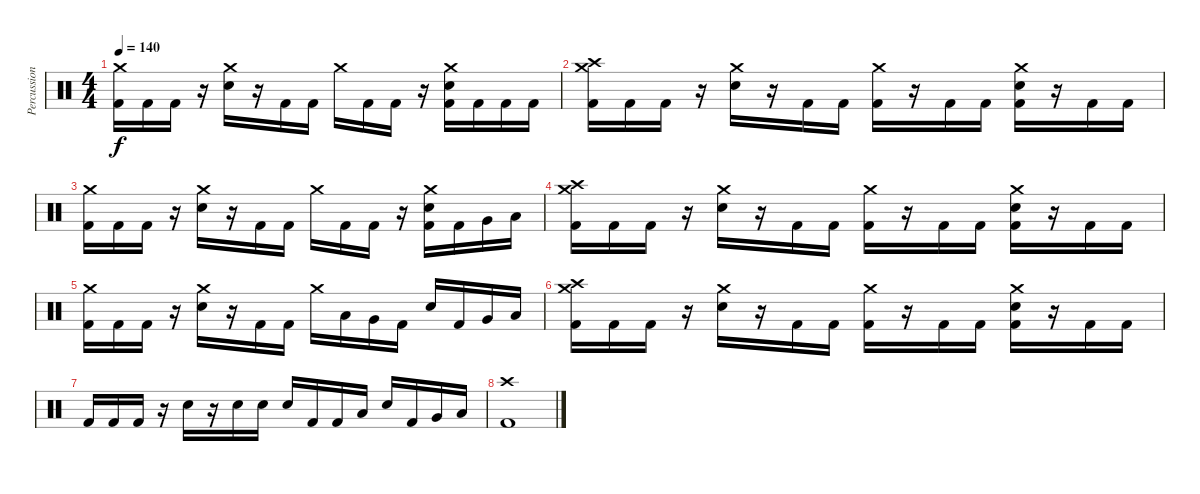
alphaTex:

\track ("Percussion" "Percussion") {instrument percussion}
\staff {score}
\articulation defaults
\ts (4 4)
\tempo 140
\clef neutral
\ks c
("Crash medium (hit)" "Kick (hit) 2").16{dy f} "Kick (hit) 2".16 "Kick (hit) 2".16 r.16 ("Crash medium (hit)" "Electric Snare (hit)").16 r.16 "Kick (hit) 2".16 "Kick (hit) 2".16 "Crash medium (hit)".16 "Kick (hit) 2".16 "Kick (hit) 2".16 r.16 ("Crash medium (hit)" "Electric Snare (hit)" "Kick (hit) 2").16 "Kick (hit) 2".16 "Kick (hit) 2".16 "Kick (hit) 2".16 |
("Crash high (hit)" "Crash medium (hit)" "Kick (hit) 2").16 "Kick (hit) 2".16 "Kick (hit) 2".16 r.16 ("Crash medium (hit)" "Electric Snare (hit)").16 r.16 "Kick (hit) 2".16 "Kick (hit) 2".16 ("Crash medium (hit)" "Kick (hit) 2").16 r.16 "Kick (hit) 2".16 "Kick (hit) 2".16 ("Crash medium (hit)" "Electric Snare (hit)" "Kick (hit) 2").16 r.16 "Kick (hit) 2".16 "Kick (hit) 2".16 |
("Crash medium (hit)" "Kick (hit) 2").16 "Kick (hit) 2".16 "Kick (hit) 2".16 r.16 ("Crash medium (hit)" "Electric Snare (hit)").16 r.16 "Kick (hit) 2".16 "Kick (hit) 2".16 "Crash medium (hit)".16 "Kick (hit) 2".16 "Kick (hit) 2".16 r.16 ("Crash medium (hit)" "Electric Snare (hit)" "Kick (hit) 2").16 "Kick (hit) 2".16 "Very Low Tom (hit)".16 "Low Floor Tom (hit)".16 |
("Crash high (hit)" "Crash medium (hit)" "Kick (hit) 2").16 "Kick (hit) 2".16 "Kick (hit) 2".16 r.16 ("Crash medium (hit)" "Electric Snare (hit)").16 r.16 "Kick (hit) 2".16 "Kick (hit) 2".16 ("Crash medium (hit)" "Kick (hit) 2").16 r.16 "Kick (hit) 2".16 "Kick (hit) 2".16 ("Crash medium (hit)" "Electric Snare (hit)" "Kick (hit) 2").16 r.16 "Kick (hit) 2".16 "Kick (hit) 2".16 |
("Crash medium (hit)" "Kick (hit) 2").16 "Kick (hit) 2".16 "Kick (hit) 2".16 r.16 ("Crash medium (hit)" "Electric Snare (hit)").16 r.16 "Kick (hit) 2".16 "Kick (hit) 2".16 "Crash medium (hit)".16 "Low Tom (hit)".16 "Very Low Tom (hit)".16 "Kick (hit) 2".16 "Electric Snare (hit)".16 "Kick (hit) 2".16 "Very Low Tom (hit)".16 "Low Floor Tom (hit)".16 |
("Crash high (hit)" "Crash medium (hit)" "Kick (hit) 2").16 "Kick (hit) 2".16 "Kick (hit) 2".16 r.16 ("Crash medium (hit)" "Electric Snare (hit)").16 r.16 "Kick (hit) 2".16 "Kick (hit) 2".16 ("Crash medium (hit)" "Kick (hit) 2").16 r.16 "Kick (hit) 2".16 "Kick (hit) 2".16 ("Crash medium (hit)" "Electric Snare (hit)" "Kick (hit) 2").16 r.16 "Kick (hit) 2".16 "Kick (hit) 2".16 |
"Kick (hit) 2".16 "Kick (hit) 2".16 "Kick (hit) 2".16 r.16 "Electric Snare (hit)".16 r.16 "Electric Snare (hit)".16 "Electric Snare (hit)".16 "Electric Snare (hit)".16 "Kick (hit) 2".16 "Kick (hit) 2".16 "Low Tom (hit)".16 "Electric Snare (hit)".16 "Kick (hit) 2".16 "Very Low Tom (hit)".16 "Low Floor Tom (hit)".16 |
("Crash high (hit)" "Kick (hit) 2").1
